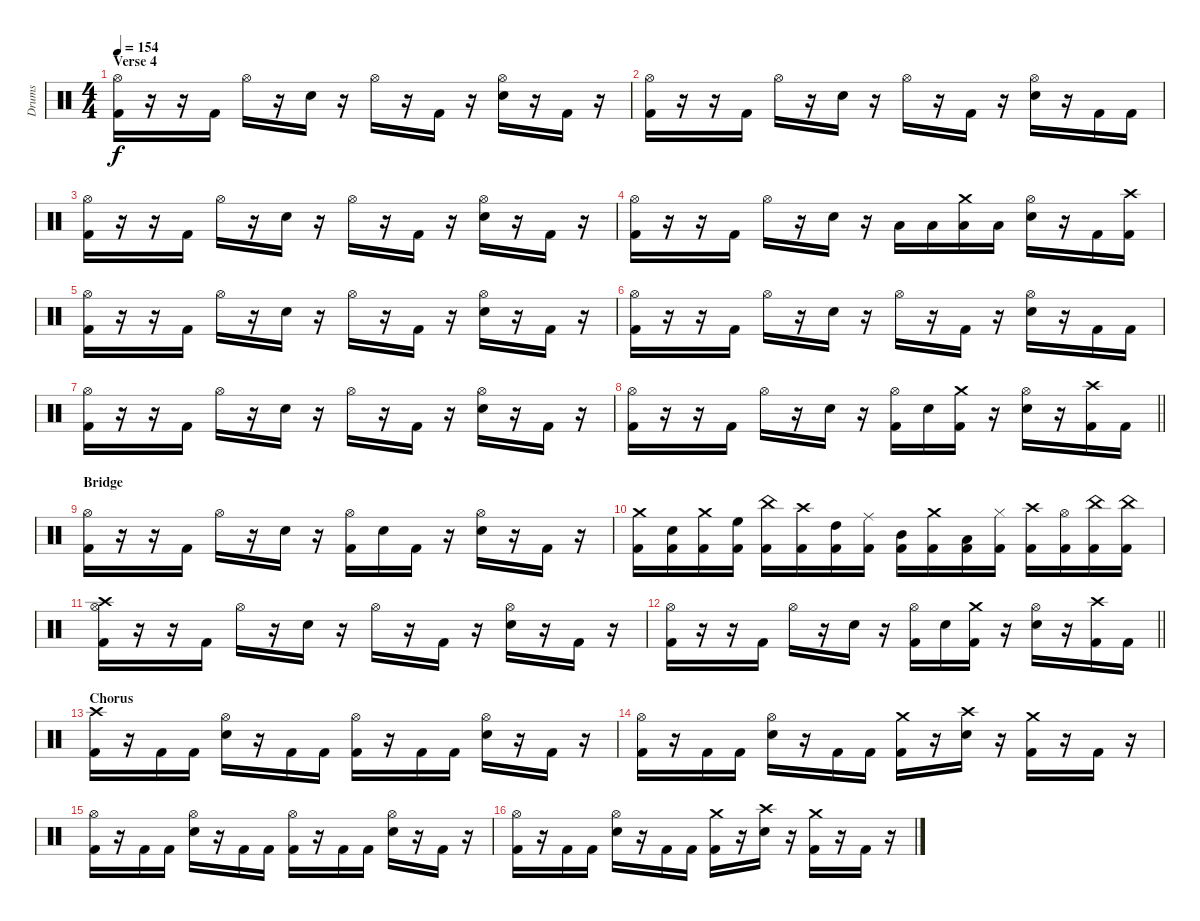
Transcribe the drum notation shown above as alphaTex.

\track ("Drums" "Drums") {instrument percussion}
\staff {score}
\articulation defaults
\ts (4 4)
\section ("" "Verse 4")
\tempo 154
\clef neutral
\ks c
("Hi-Hat (open)" "Kick (hit) 2").16{dy f} r.16 r.16 "Kick (hit) 2".16 "Hi-Hat (open)".16 r.16 "Snare (hit) 2".16 r.16 "Hi-Hat (open)".16 r.16 "Kick (hit) 2".16 r.16 ("Hi-Hat (open)" "Snare (hit) 2").16 r.16 "Kick (hit) 2".16 r.16 |
("Hi-Hat (open)" "Kick (hit) 2").16 r.16 r.16 "Kick (hit) 2".16 "Hi-Hat (open)".16 r.16 "Snare (hit) 2".16 r.16 "Hi-Hat (open)".16 r.16 "Kick (hit) 2".16 r.16 ("Hi-Hat (open)" "Snare (hit) 2").16 r.16 "Kick (hit) 2".16 "Kick (hit) 2".16 |
("Hi-Hat (open)" "Kick (hit) 2").16 r.16 r.16 "Kick (hit) 2".16 "Hi-Hat (open)".16 r.16 "Snare (hit) 2".16 r.16 "Hi-Hat (open)".16 r.16 "Kick (hit) 2".16 r.16 ("Hi-Hat (open)" "Snare (hit) 2").16 r.16 "Kick (hit) 2".16 r.16 |
("Hi-Hat (open)" "Kick (hit) 2").16 r.16 r.16 "Kick (hit) 2".16 "Hi-Hat (open)".16 r.16 "Snare (hit) 2".16 r.16 "Low Tom (hit)".16 "Low Tom (hit)".16 ("Crash medium (hit)" "Low Floor Tom (hit)").16 "Low Floor Tom (hit)".16 ("Hi-Hat (open)" "Snare (hit) 2").16 r.16 "Kick (hit) 2".16 ("Crash high (hit)" "Kick (hit) 2").16 |
("Hi-Hat (open)" "Kick (hit) 2").16 r.16 r.16 "Kick (hit) 2".16 "Hi-Hat (open)".16 r.16 "Snare (hit) 2".16 r.16 "Hi-Hat (open)".16 r.16 "Kick (hit) 2".16 r.16 ("Hi-Hat (open)" "Snare (hit) 2").16 r.16 "Kick (hit) 2".16 r.16 |
("Hi-Hat (open)" "Kick (hit) 2").16 r.16 r.16 "Kick (hit) 2".16 "Hi-Hat (open)".16 r.16 "Snare (hit) 2".16 r.16 "Hi-Hat (open)".16 r.16 "Kick (hit) 2".16 r.16 ("Hi-Hat (open)" "Snare (hit) 2").16 r.16 "Kick (hit) 2".16 "Kick (hit) 2".16 |
("Hi-Hat (open)" "Kick (hit) 2").16 r.16 r.16 "Kick (hit) 2".16 "Hi-Hat (open)".16 r.16 "Snare (hit) 2".16 r.16 "Hi-Hat (open)".16 r.16 "Kick (hit) 2".16 r.16 ("Hi-Hat (open)" "Snare (hit) 2").16 r.16 "Kick (hit) 2".16 r.16 |
\barLineRight lightlight
("Hi-Hat (open)" "Kick (hit) 2").16 r.16 r.16 "Kick (hit) 2".16 "Hi-Hat (open)".16 r.16 "Snare (hit) 2".16 r.16 ("Hi-Hat (open)" "Kick (hit) 2").16 "Snare (hit) 2".16 ("Crash medium (hit)" "Kick (hit) 2").16 r.16 ("Hi-Hat (open)" "Snare (hit) 2").16 r.16 ("Crash high (hit)" "Kick (hit) 2").16 "Kick (hit) 2".16 |
\section ("" "Bridge")
("Hi-Hat (open)" "Kick (hit) 2").16 r.16 r.16 "Kick (hit) 2".16 "Hi-Hat (open)".16 r.16 "Snare (hit) 2".16 r.16 ("Hi-Hat (open)" "Kick (hit) 2").16 "Snare (hit) 2".16 "Kick (hit) 2".16 r.16 ("Hi-Hat (open)" "Snare (hit) 2").16 r.16 "Kick (hit) 2".16 r.16 |
("Crash medium (hit)" "Kick (hit) 2").16 ("Snare (hit) 2" "Kick (hit) 2").16 ("Crash medium (hit)" "Kick (hit) 2").16 ("High Floor Tom (hit)" "Kick (hit) 2").16 ("China (hit)" "Kick (hit) 2").16 ("Crash high (hit)" "Kick (hit) 2").16 ("High Tom (hit)" "Kick (hit) 2").16 ("Ride (middle)" "Kick (hit) 2").16 ("Mid Tom (hit)" "Kick (hit) 2").16 ("Crash medium (hit)" "Kick (hit) 2").16 ("Low Tom (hit)" "Kick (hit) 2").16 ("Hi-Hat (closed)" "Kick (hit) 2").16 ("Crash high (hit)" "Kick (hit) 2").16 ("Hi-Hat (open)" "Kick (hit) 2").16 ("China (hit)" "Kick (hit) 2").16 ("China (hit)" "Kick (hit) 2").16 |
("Hi-Hat (open)" "Crash high (hit)" "Kick (hit) 2").16 r.16 r.16 "Kick (hit) 2".16 "Hi-Hat (open)".16 r.16 "Snare (hit) 2".16 r.16 "Hi-Hat (open)".16 r.16 "Kick (hit) 2".16 r.16 ("Hi-Hat (open)" "Snare (hit) 2").16 r.16 "Kick (hit) 2".16 r.16 |
\barLineRight lightlight
("Hi-Hat (open)" "Kick (hit) 2").16 r.16 r.16 "Kick (hit) 2".16 "Hi-Hat (open)".16 r.16 "Snare (hit) 2".16 r.16 ("Hi-Hat (open)" "Kick (hit) 2").16 "Snare (hit) 2".16 ("Crash medium (hit)" "Kick (hit) 2").16 r.16 ("Hi-Hat (open)" "Snare (hit) 2").16 r.16 ("Crash high (hit)" "Kick (hit) 2").16 "Kick (hit) 2".16 |
\section ("" "Chorus")
("Crash high (hit)" "Kick (hit) 2").16 r.16 "Kick (hit) 2".16 "Kick (hit) 2".16 ("Hi-Hat (open)" "Snare (hit) 2").16 r.16 "Kick (hit) 2".16 "Kick (hit) 2".16 ("Hi-Hat (open)" "Kick (hit) 2").16 r.16 "Kick (hit) 2".16 "Kick (hit) 2".16 ("Hi-Hat (open)" "Snare (hit) 2").16 r.16 "Kick (hit) 2".16 r.16 |
("Hi-Hat (open)" "Kick (hit) 2").16 r.16 "Kick (hit) 2".16 "Kick (hit) 2".16 ("Hi-Hat (open)" "Snare (hit) 2").16 r.16 "Kick (hit) 2".16 "Kick (hit) 2".16 ("Crash medium (hit)" "Kick (hit) 2").16 r.16 ("Crash high (hit)" "Snare (hit) 2").16 r.16 ("Crash medium (hit)" "Kick (hit) 2").16 r.16 "Kick (hit) 2".16 r.16 |
("Hi-Hat (open)" "Kick (hit) 2").16 r.16 "Kick (hit) 2".16 "Kick (hit) 2".16 ("Hi-Hat (open)" "Snare (hit) 2").16 r.16 "Kick (hit) 2".16 "Kick (hit) 2".16 ("Hi-Hat (open)" "Kick (hit) 2").16 r.16 "Kick (hit) 2".16 "Kick (hit) 2".16 ("Hi-Hat (open)" "Snare (hit) 2").16 r.16 "Kick (hit) 2".16 r.16 |
("Hi-Hat (open)" "Kick (hit) 2").16 r.16 "Kick (hit) 2".16 "Kick (hit) 2".16 ("Hi-Hat (open)" "Snare (hit) 2").16 r.16 "Kick (hit) 2".16 "Kick (hit) 2".16 ("Crash medium (hit)" "Kick (hit) 2").16 r.16 ("Crash high (hit)" "Snare (hit) 2").16 r.16 ("Crash medium (hit)" "Kick (hit) 2").16 r.16 "Kick (hit) 2".16 r.16
